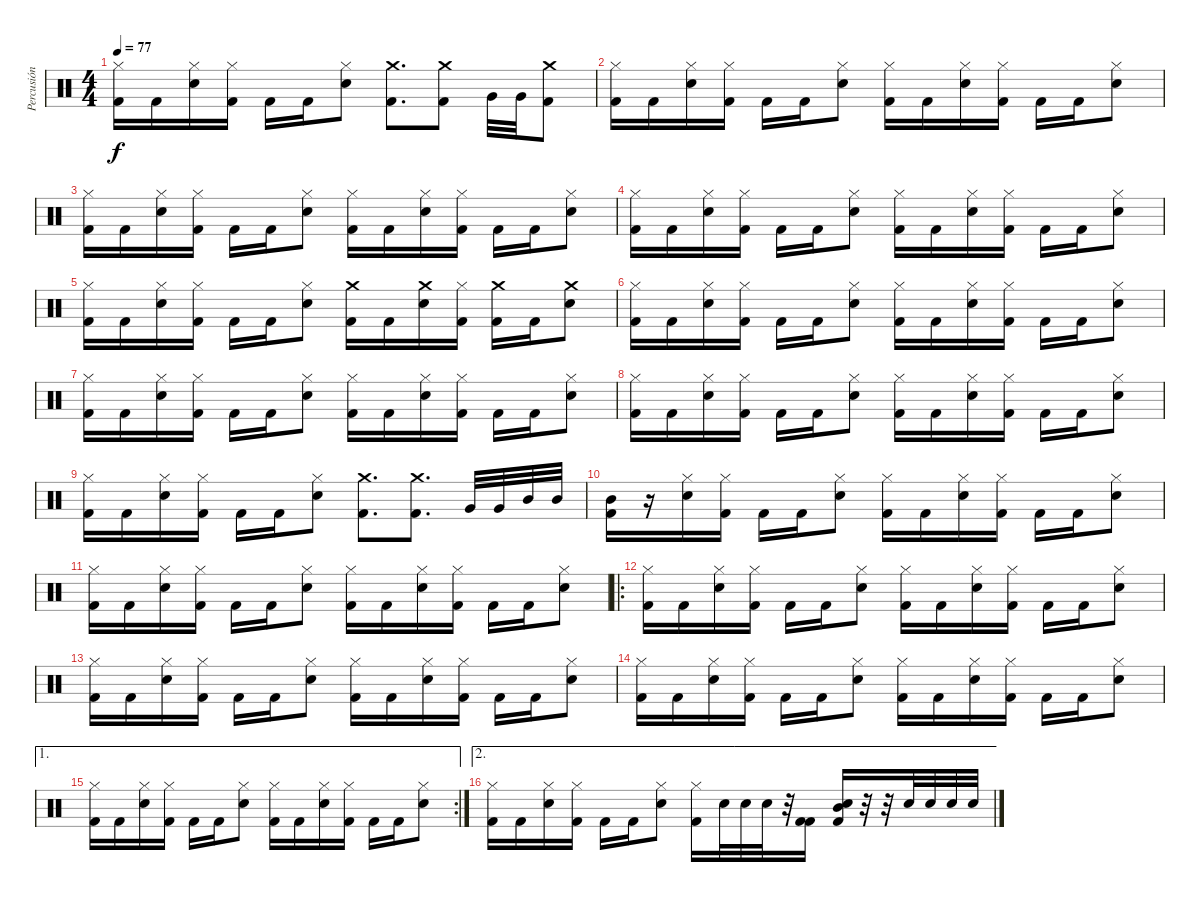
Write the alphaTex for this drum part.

\track ("Percusión" "Percusión") {instrument percussion}
\staff {score}
\articulation defaults
\ts (4 4)
\tempo 77
\clef neutral
\ks c
("Kick (hit) 2" "Hi-Hat (closed)").16{dy f} "Kick (hit) 2".16 ("Electric Snare (hit)" "Hi-Hat (closed)").16 ("Kick (hit) 2" "Hi-Hat (closed)").16 "Kick (hit) 2".16 "Kick (hit) 2".16 ("Electric Snare (hit)" "Hi-Hat (closed)").8 ("Kick (hit) 2" "Crash medium (hit)").8{d} ("Kick (hit) 2" "Crash medium (hit)").8 "Very Low Tom (hit)".32 "Very Low Tom (hit)".32 ("Kick (hit) 2" "Crash medium (hit)").8 |
("Kick (hit) 2" "Hi-Hat (closed)").16 "Kick (hit) 2".16 ("Electric Snare (hit)" "Hi-Hat (closed)").16 ("Kick (hit) 2" "Hi-Hat (closed)").16 "Kick (hit) 2".16 "Kick (hit) 2".16 ("Electric Snare (hit)" "Hi-Hat (closed)").8 ("Kick (hit) 2" "Hi-Hat (closed)").16 "Kick (hit) 2".16 ("Electric Snare (hit)" "Hi-Hat (closed)").16 ("Kick (hit) 2" "Hi-Hat (closed)").16 "Kick (hit) 2".16 "Kick (hit) 2".16 ("Electric Snare (hit)" "Hi-Hat (closed)").8 |
("Kick (hit) 2" "Hi-Hat (closed)").16 "Kick (hit) 2".16 ("Electric Snare (hit)" "Hi-Hat (closed)").16 ("Kick (hit) 2" "Hi-Hat (closed)").16 "Kick (hit) 2".16 "Kick (hit) 2".16 ("Electric Snare (hit)" "Hi-Hat (closed)").8 ("Kick (hit) 2" "Hi-Hat (closed)").16 "Kick (hit) 2".16 ("Electric Snare (hit)" "Hi-Hat (closed)").16 ("Kick (hit) 2" "Hi-Hat (closed)").16 "Kick (hit) 2".16 "Kick (hit) 2".16 ("Electric Snare (hit)" "Hi-Hat (closed)").8 |
("Kick (hit) 2" "Hi-Hat (closed)").16 "Kick (hit) 2".16 ("Electric Snare (hit)" "Hi-Hat (closed)").16 ("Kick (hit) 2" "Hi-Hat (closed)").16 "Kick (hit) 2".16 "Kick (hit) 2".16 ("Electric Snare (hit)" "Hi-Hat (closed)").8 ("Kick (hit) 2" "Hi-Hat (closed)").16 "Kick (hit) 2".16 ("Electric Snare (hit)" "Hi-Hat (closed)").16 ("Kick (hit) 2" "Hi-Hat (closed)").16 "Kick (hit) 2".16 "Kick (hit) 2".16 ("Electric Snare (hit)" "Hi-Hat (closed)").8 |
("Kick (hit) 2" "Hi-Hat (closed)").16 "Kick (hit) 2".16 ("Electric Snare (hit)" "Hi-Hat (closed)").16 ("Kick (hit) 2" "Hi-Hat (closed)").16 "Kick (hit) 2".16 "Kick (hit) 2".16 ("Electric Snare (hit)" "Hi-Hat (closed)").8 ("Kick (hit) 2" "Crash medium (hit)").16 "Kick (hit) 2".16 ("Electric Snare (hit)" "Crash medium (hit)").16 ("Kick (hit) 2" "Hi-Hat (closed)").16 ("Kick (hit) 2" "Crash medium (hit)").16 "Kick (hit) 2".16 ("Electric Snare (hit)" "Crash medium (hit)").8 |
("Kick (hit) 2" "Hi-Hat (closed)").16 "Kick (hit) 2".16 ("Electric Snare (hit)" "Hi-Hat (closed)").16 ("Kick (hit) 2" "Hi-Hat (closed)").16 "Kick (hit) 2".16 "Kick (hit) 2".16 ("Electric Snare (hit)" "Hi-Hat (closed)").8 ("Kick (hit) 2" "Hi-Hat (closed)").16 "Kick (hit) 2".16 ("Electric Snare (hit)" "Hi-Hat (closed)").16 ("Kick (hit) 2" "Hi-Hat (closed)").16 "Kick (hit) 2".16 "Kick (hit) 2".16 ("Electric Snare (hit)" "Hi-Hat (closed)").8 |
("Kick (hit) 2" "Hi-Hat (closed)").16 "Kick (hit) 2".16 ("Electric Snare (hit)" "Hi-Hat (closed)").16 ("Kick (hit) 2" "Hi-Hat (closed)").16 "Kick (hit) 2".16 "Kick (hit) 2".16 ("Electric Snare (hit)" "Hi-Hat (closed)").8 ("Kick (hit) 2" "Hi-Hat (closed)").16 "Kick (hit) 2".16 ("Electric Snare (hit)" "Hi-Hat (closed)").16 ("Kick (hit) 2" "Hi-Hat (closed)").16 "Kick (hit) 2".16 "Kick (hit) 2".16 ("Electric Snare (hit)" "Hi-Hat (closed)").8 |
("Kick (hit) 2" "Hi-Hat (closed)").16 "Kick (hit) 2".16 ("Electric Snare (hit)" "Hi-Hat (closed)").16 ("Kick (hit) 2" "Hi-Hat (closed)").16 "Kick (hit) 2".16 "Kick (hit) 2".16 ("Electric Snare (hit)" "Hi-Hat (closed)").8 ("Kick (hit) 2" "Hi-Hat (closed)").16 "Kick (hit) 2".16 ("Electric Snare (hit)" "Hi-Hat (closed)").16 ("Kick (hit) 2" "Hi-Hat (closed)").16 "Kick (hit) 2".16 "Kick (hit) 2".16 ("Electric Snare (hit)" "Hi-Hat (closed)").8 |
("Kick (hit) 2" "Hi-Hat (closed)").16 "Kick (hit) 2".16 ("Electric Snare (hit)" "Hi-Hat (closed)").16 ("Kick (hit) 2" "Hi-Hat (closed)").16 "Kick (hit) 2".16 "Kick (hit) 2".16 ("Electric Snare (hit)" "Hi-Hat (closed)").8 ("Kick (hit) 2" "Crash medium (hit)").8{d} ("Kick (hit) 2" "Crash medium (hit)").8{d} "Very Low Tom (hit)".32 "Very Low Tom (hit)".32 "Mid Tom (hit)".32 "Mid Tom (hit)".32 |
("Kick (hit) 2" "Mid Tom (hit)").16 r.16 ("Electric Snare (hit)" "Hi-Hat (closed)").16 ("Kick (hit) 2" "Hi-Hat (closed)").16 "Kick (hit) 2".16 "Kick (hit) 2".16 ("Electric Snare (hit)" "Hi-Hat (closed)").8 ("Kick (hit) 2" "Hi-Hat (closed)").16 "Kick (hit) 2".16 ("Electric Snare (hit)" "Hi-Hat (closed)").16 ("Kick (hit) 2" "Hi-Hat (closed)").16 "Kick (hit) 2".16 "Kick (hit) 2".16 ("Electric Snare (hit)" "Hi-Hat (closed)").8 |
("Kick (hit) 2" "Hi-Hat (closed)").16 "Kick (hit) 2".16 ("Electric Snare (hit)" "Hi-Hat (closed)").16 ("Kick (hit) 2" "Hi-Hat (closed)").16 "Kick (hit) 2".16 "Kick (hit) 2".16 ("Electric Snare (hit)" "Hi-Hat (closed)").8 ("Kick (hit) 2" "Hi-Hat (closed)").16 "Kick (hit) 2".16 ("Electric Snare (hit)" "Hi-Hat (closed)").16 ("Kick (hit) 2" "Hi-Hat (closed)").16 "Kick (hit) 2".16 "Kick (hit) 2".16 ("Electric Snare (hit)" "Hi-Hat (closed)").8 |
\ro
("Kick (hit) 2" "Hi-Hat (closed)").16 "Kick (hit) 2".16 ("Hi-Hat (closed)" "Electric Snare (hit)").16 ("Kick (hit) 2" "Hi-Hat (closed)").16 "Kick (hit) 2".16 "Kick (hit) 2".16 ("Electric Snare (hit)" "Hi-Hat (closed)").8 ("Kick (hit) 2" "Hi-Hat (closed)").16 "Kick (hit) 2".16 ("Electric Snare (hit)" "Hi-Hat (closed)").16 ("Kick (hit) 2" "Hi-Hat (closed)").16 "Kick (hit) 2".16 "Kick (hit) 2".16 ("Electric Snare (hit)" "Hi-Hat (closed)").8 |
("Kick (hit) 2" "Hi-Hat (closed)").16 "Kick (hit) 2".16 ("Electric Snare (hit)" "Hi-Hat (closed)").16 ("Kick (hit) 2" "Hi-Hat (closed)").16 "Kick (hit) 2".16 "Kick (hit) 2".16 ("Electric Snare (hit)" "Hi-Hat (closed)").8 ("Kick (hit) 2" "Hi-Hat (closed)").16 "Kick (hit) 2".16 ("Electric Snare (hit)" "Hi-Hat (closed)").16 ("Kick (hit) 2" "Hi-Hat (closed)").16 "Kick (hit) 2".16 "Kick (hit) 2".16 ("Electric Snare (hit)" "Hi-Hat (closed)").8 |
("Kick (hit) 2" "Hi-Hat (closed)").16 "Kick (hit) 2".16 ("Electric Snare (hit)" "Hi-Hat (closed)").16 ("Kick (hit) 2" "Hi-Hat (closed)").16 "Kick (hit) 2".16 "Kick (hit) 2".16 ("Electric Snare (hit)" "Hi-Hat (closed)").8 ("Kick (hit) 2" "Hi-Hat (closed)").16 "Kick (hit) 2".16 ("Electric Snare (hit)" "Hi-Hat (closed)").16 ("Kick (hit) 2" "Hi-Hat (closed)").16 "Kick (hit) 2".16 "Kick (hit) 2".16 ("Electric Snare (hit)" "Hi-Hat (closed)").8 |
\ae 1
\rc 2
("Kick (hit) 2" "Hi-Hat (closed)").16 "Kick (hit) 2".16 ("Electric Snare (hit)" "Hi-Hat (closed)").16 ("Kick (hit) 2" "Hi-Hat (closed)").16 "Kick (hit) 2".16 "Kick (hit) 2".16 ("Electric Snare (hit)" "Hi-Hat (closed)").8 ("Kick (hit) 2" "Hi-Hat (closed)").16 "Kick (hit) 2".16 ("Electric Snare (hit)" "Hi-Hat (closed)").16 ("Kick (hit) 2" "Hi-Hat (closed)").16 "Kick (hit) 2".16 "Kick (hit) 2".16 ("Electric Snare (hit)" "Hi-Hat (closed)").8 |
\ae 2
("Kick (hit) 2" "Hi-Hat (closed)").16 "Kick (hit) 2".16 ("Electric Snare (hit)" "Hi-Hat (closed)").16 ("Kick (hit) 2" "Hi-Hat (closed)").16 "Kick (hit) 2".16 "Kick (hit) 2".16 ("Electric Snare (hit)" "Hi-Hat (closed)").8 ("Kick (hit) 2" "Hi-Hat (closed)").16 "Electric Snare (hit)".32 "Electric Snare (hit)".32 "Electric Snare (hit)".32 r.32 ("Kick (hit) 2" "Kick (hit) 2").16 ("Mid Tom (hit)" "Electric Snare (hit)" "Kick (hit) 2").16 r.32 r.32 "Electric Snare (hit)".32 "Electric Snare (hit)".32 "Electric Snare (hit)".32 "Electric Snare (hit)".32
